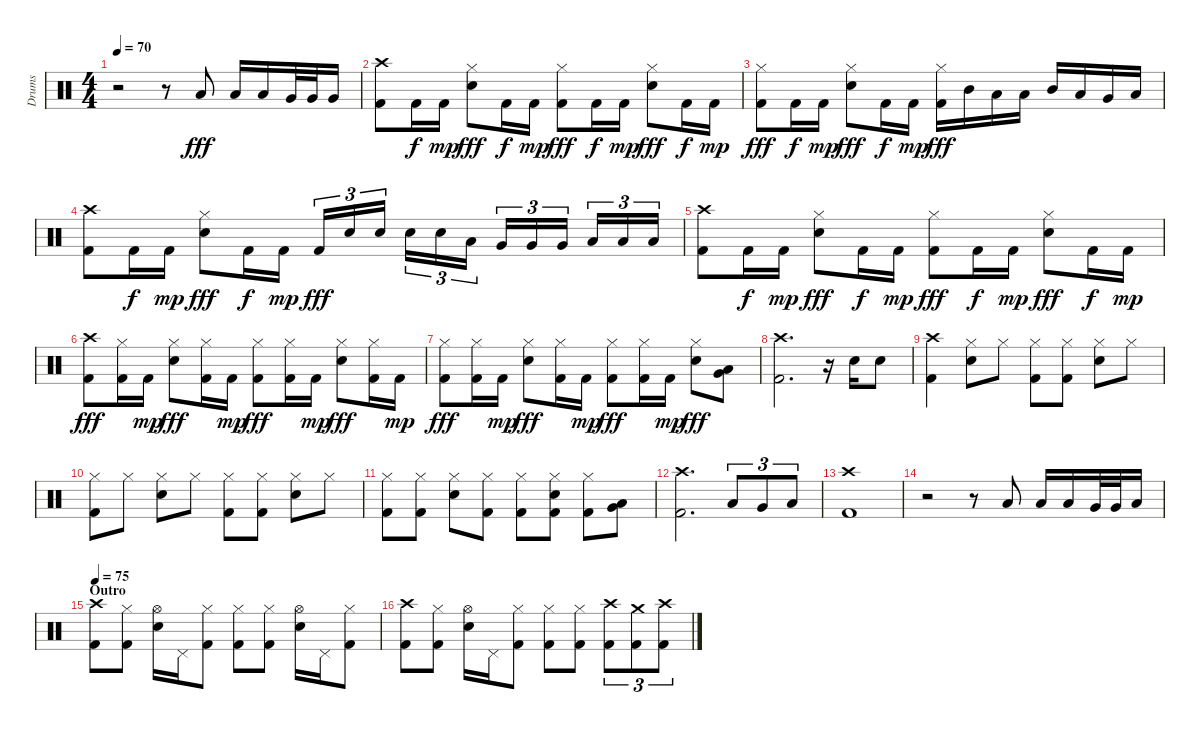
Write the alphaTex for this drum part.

\track ("Drums" "Drums") {instrument percussion}
\staff {score}
\articulation defaults
\ts (4 4)
\tempo 70
\clef neutral
\ks c
r.2{dy fff} r.8 "Low Tom (hit)".8 "Low Tom (hit)".16 "Low Tom (hit)".16 "Very Low Tom (hit)".32 "Very Low Tom (hit)".32 "Very Low Tom (hit)".16 |
("Crash high (hit)" "Kick (hit) 2").8 "Kick (hit) 2".16{dy f} "Kick (hit) 2".16{dy mp} ("Hi-Hat (closed)" "Snare (hit) 2").8{dy fff} "Kick (hit) 2".16{dy f} "Kick (hit) 2".16{dy mp} ("Hi-Hat (closed)" "Kick (hit) 2").8{dy fff} "Kick (hit) 2".16{dy f} "Kick (hit) 2".16{dy mp} ("Hi-Hat (closed)" "Snare (hit) 2").8{dy fff} "Kick (hit) 2".16{dy f} "Kick (hit) 2".16{dy mp} |
("Hi-Hat (closed)" "Kick (hit) 2").8{dy fff} "Kick (hit) 2".16{dy f} "Kick (hit) 2".16{dy mp} ("Hi-Hat (closed)" "Snare (hit) 2").8{dy fff} "Kick (hit) 2".16{dy f} "Kick (hit) 2".16{dy mp} ("Hi-Hat (closed)" "Kick (hit) 2").16{dy fff} "Mid Tom (hit)".16 "Low Tom (hit)".16 "Low Tom (hit)".16 "Mid Tom (hit)".16 "Low Tom (hit)".16 "Very Low Tom (hit)".16 "Low Floor Tom (hit)".16 |
("Crash high (hit)" "Kick (hit) 2").8 "Kick (hit) 2".16{dy f} "Kick (hit) 2".16{dy mp} ("Hi-Hat (closed)" "Snare (hit) 2").8{dy fff} "Kick (hit) 2".16{dy f} "Kick (hit) 2".16{dy mp} "Kick (hit) 2".16{tu (3 2) dy fff} "Snare (hit) 2".16{tu (3 2)} "Snare (hit) 2".16{tu (3 2) beam splitsecondary} "Snare (hit) 2".16{tu (3 2)} "Snare (hit) 2".16{tu (3 2)} "Low Tom (hit)".16{tu (3 2)} "Very Low Tom (hit)".16{tu (3 2)} "Very Low Tom (hit)".16{tu (3 2)} "Very Low Tom (hit)".16{tu (3 2) beam splitsecondary} "Low Floor Tom (hit)".16{tu (3 2)} "Low Floor Tom (hit)".16{tu (3 2)} "Low Floor Tom (hit)".16{tu (3 2)} |
("Crash high (hit)" "Kick (hit) 2").8 "Kick (hit) 2".16{dy f} "Kick (hit) 2".16{dy mp} ("Hi-Hat (closed)" "Snare (hit) 2").8{dy fff} "Kick (hit) 2".16{dy f} "Kick (hit) 2".16{dy mp} ("Hi-Hat (closed)" "Kick (hit) 2").8{dy fff} "Kick (hit) 2".16{dy f} "Kick (hit) 2".16{dy mp} ("Hi-Hat (closed)" "Snare (hit) 2").8{dy fff} "Kick (hit) 2".16{dy f} "Kick (hit) 2".16{dy mp} |
("Crash high (hit)" "Kick (hit) 2").8{dy fff} ("Hi-Hat (closed)" "Kick (hit) 2").16 "Kick (hit) 2".16{dy mp} ("Hi-Hat (closed)" "Snare (hit) 2").8{dy fff} ("Hi-Hat (closed)" "Kick (hit) 2").16 "Kick (hit) 2".16{dy mp} ("Hi-Hat (closed)" "Kick (hit) 2").8{dy fff} ("Hi-Hat (closed)" "Kick (hit) 2").16 "Kick (hit) 2".16{dy mp} ("Hi-Hat (closed)" "Snare (hit) 2").8{dy fff} ("Hi-Hat (closed)" "Kick (hit) 2").16 "Kick (hit) 2".16{dy mp} |
("Hi-Hat (closed)" "Kick (hit) 2").8{dy fff} ("Hi-Hat (closed)" "Kick (hit) 2").16 "Kick (hit) 2".16{dy mp} ("Hi-Hat (closed)" "Snare (hit) 2").8{dy fff} ("Hi-Hat (closed)" "Kick (hit) 2").16 "Kick (hit) 2".16{dy mp} ("Hi-Hat (closed)" "Kick (hit) 2").8{dy fff} ("Hi-Hat (closed)" "Kick (hit) 2").16 "Kick (hit) 2".16{dy mp} ("Hi-Hat (closed)" "Snare (hit) 2").8{dy fff} ("Low Tom (hit)" "Very Low Tom (hit)").8 |
("Crash high (hit)" "Kick (hit) 2").2{d} r.16 "Snare (hit) 2".16 "Snare (hit) 2".8 |
("Crash high (hit)" "Kick (hit) 2").4 ("Hi-Hat (closed)" "Snare (hit) 2").8 "Hi-Hat (closed)".8 ("Hi-Hat (closed)" "Kick (hit) 2").8 ("Hi-Hat (closed)" "Kick (hit) 2").8 ("Hi-Hat (closed)" "Snare (hit) 2").8 "Hi-Hat (closed)".8 |
("Hi-Hat (closed)" "Kick (hit) 2").8 "Hi-Hat (closed)".8 ("Hi-Hat (closed)" "Snare (hit) 2").8 "Hi-Hat (closed)".8 ("Hi-Hat (closed)" "Kick (hit) 2").8 ("Hi-Hat (closed)" "Kick (hit) 2").8 ("Hi-Hat (closed)" "Snare (hit) 2").8 "Hi-Hat (closed)".8 |
("Hi-Hat (closed)" "Kick (hit) 2").8 ("Hi-Hat (closed)" "Kick (hit) 2").8 ("Hi-Hat (closed)" "Snare (hit) 2").8 ("Hi-Hat (closed)" "Kick (hit) 2").8 ("Hi-Hat (closed)" "Kick (hit) 2").8 ("Hi-Hat (closed)" "Snare (hit) 2" "Kick (hit) 2").8 ("Hi-Hat (closed)" "Kick (hit) 2").8 ("Low Tom (hit)" "Very Low Tom (hit)").8 |
("Crash high (hit)" "Kick (hit) 2").2{d} "Low Tom (hit)".8{tu (3 2)} "Very Low Tom (hit)".8{tu (3 2)} "Low Floor Tom (hit)".8{tu (3 2)} |
("Crash high (hit)" "Kick (hit) 2").1 |
r.2 r.8 "Low Tom (hit)".8 "Low Tom (hit)".16 "Low Tom (hit)".16 "Very Low Tom (hit)".32 "Very Low Tom (hit)".32 "Low Floor Tom (hit)".16 |
\section ("" "Outro")
\tempo 75
("Crash high (hit)" "Kick (hit) 2").8 ("Hi-Hat (closed)" "Kick (hit) 2").8 ("Hi-Hat (open)" "Snare (hit) 2").16 "Pedal Hi-Hat (hit)".16 ("Hi-Hat (closed)" "Kick (hit) 2").8 ("Hi-Hat (closed)" "Kick (hit) 2").8 ("Hi-Hat (closed)" "Kick (hit) 2").8 ("Hi-Hat (open)" "Snare (hit) 2").16 "Pedal Hi-Hat (hit)".16 ("Hi-Hat (closed)" "Kick (hit) 2").8 |
("Crash high (hit)" "Kick (hit) 2").8 ("Hi-Hat (closed)" "Kick (hit) 2").8 ("Hi-Hat (open)" "Snare (hit) 2").16 "Pedal Hi-Hat (hit)".16 ("Hi-Hat (closed)" "Kick (hit) 2").8 ("Hi-Hat (closed)" "Kick (hit) 2").8 ("Hi-Hat (closed)" "Kick (hit) 2").8 ("Crash high (hit)" "Kick (hit) 2").8{tu (3 2)} ("Crash medium (hit)" "Kick (hit) 2").8{tu (3 2)} ("Crash high (hit)" "Kick (hit) 2").8{tu (3 2)}
